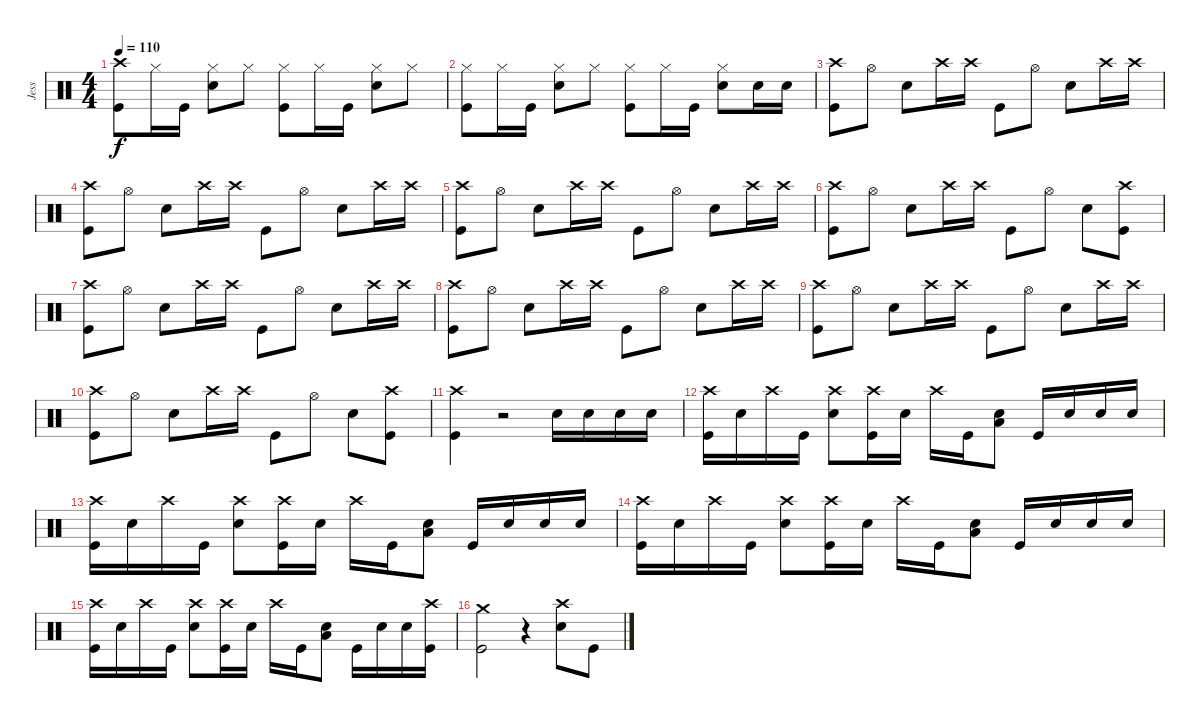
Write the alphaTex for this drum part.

\track ("Jess" "Jess") {instrument percussion}
\staff {score}
\articulation defaults
\ts (4 4)
\tempo 110
\clef neutral
\ks c
("Crash high (hit)" "Kick (hit)").8{dy f} "Hi-Hat (closed)".16 "Kick (hit)".16 ("Hi-Hat (closed)" "Electric Snare (hit)").8 "Hi-Hat (closed)".8 ("Hi-Hat (closed)" "Kick (hit)").8 "Hi-Hat (closed)".16 "Kick (hit)".16 ("Hi-Hat (closed)" "Electric Snare (hit)").8 "Hi-Hat (closed)".8 |
("Hi-Hat (closed)" "Kick (hit)").8 "Hi-Hat (closed)".16 "Kick (hit)".16 ("Hi-Hat (closed)" "Electric Snare (hit)").8 "Hi-Hat (closed)".8 ("Hi-Hat (closed)" "Kick (hit)").8 "Hi-Hat (closed)".16 "Kick (hit)".16 ("Hi-Hat (closed)" "Electric Snare (hit)").8 "Electric Snare (hit)".16 "Electric Snare (hit)".16 |
("Crash high (hit)" "Kick (hit)").8 "Hi-Hat (open)".8 "Electric Snare (hit)".8 "Crash high (hit)".16 "Crash high (hit)".16 "Kick (hit)".8 "Hi-Hat (open)".8 "Electric Snare (hit)".8 "Crash high (hit)".16 "Crash high (hit)".16 |
("Crash high (hit)" "Kick (hit)").8 "Hi-Hat (open)".8 "Electric Snare (hit)".8 "Crash high (hit)".16 "Crash high (hit)".16 "Kick (hit)".8 "Hi-Hat (open)".8 "Electric Snare (hit)".8 "Crash high (hit)".16 "Crash high (hit)".16 |
("Crash high (hit)" "Kick (hit)").8 "Hi-Hat (open)".8 "Electric Snare (hit)".8 "Crash high (hit)".16 "Crash high (hit)".16 "Kick (hit)".8 "Hi-Hat (open)".8 "Electric Snare (hit)".8 "Crash high (hit)".16 "Crash high (hit)".16 |
("Crash high (hit)" "Kick (hit)").8 "Hi-Hat (open)".8 "Electric Snare (hit)".8 "Crash high (hit)".16 "Crash high (hit)".16 "Kick (hit)".8 "Hi-Hat (open)".8 "Electric Snare (hit)".8 ("Crash high (hit)" "Kick (hit)").8 |
("Crash high (hit)" "Kick (hit)").8 "Hi-Hat (open)".8 "Electric Snare (hit)".8 "Crash high (hit)".16 "Crash high (hit)".16 "Kick (hit)".8 "Hi-Hat (open)".8 "Electric Snare (hit)".8 "Crash high (hit)".16 "Crash high (hit)".16 |
("Crash high (hit)" "Kick (hit)").8 "Hi-Hat (open)".8 "Electric Snare (hit)".8 "Crash high (hit)".16 "Crash high (hit)".16 "Kick (hit)".8 "Hi-Hat (open)".8 "Electric Snare (hit)".8 "Crash high (hit)".16 "Crash high (hit)".16 |
("Crash high (hit)" "Kick (hit)").8 "Hi-Hat (open)".8 "Electric Snare (hit)".8 "Crash high (hit)".16 "Crash high (hit)".16 "Kick (hit)".8 "Hi-Hat (open)".8 "Electric Snare (hit)".8 "Crash high (hit)".16 "Crash high (hit)".16 |
("Crash high (hit)" "Kick (hit)").8 "Hi-Hat (open)".8 "Electric Snare (hit)".8 "Crash high (hit)".16 "Crash high (hit)".16 "Kick (hit)".8 "Hi-Hat (open)".8 "Electric Snare (hit)".8 ("Crash high (hit)" "Kick (hit)").8 |
("Crash high (hit)" "Kick (hit)").4 r.2 "Electric Snare (hit)".16 "Electric Snare (hit)".16 "Electric Snare (hit)".16 "Electric Snare (hit)".16 |
("Crash high (hit)" "Kick (hit)").16 "Electric Snare (hit)".16 "Crash high (hit)".16 "Kick (hit)".16 ("Crash high (hit)" "Electric Snare (hit)").8 ("Crash high (hit)" "Kick (hit)").16 "Electric Snare (hit)".16 "Crash high (hit)".16 "Kick (hit)".16 ("Electric Snare (hit)" "Low Floor Tom (hit)").8 "Kick (hit)".16 "Electric Snare (hit)".16 "Electric Snare (hit)".16 "Electric Snare (hit)".16 |
("Crash high (hit)" "Kick (hit)").16 "Electric Snare (hit)".16 "Crash high (hit)".16 "Kick (hit)".16 ("Crash high (hit)" "Electric Snare (hit)").8 ("Crash high (hit)" "Kick (hit)").16 "Electric Snare (hit)".16 "Crash high (hit)".16 "Kick (hit)".16 ("Electric Snare (hit)" "Low Floor Tom (hit)").8 "Kick (hit)".16 "Electric Snare (hit)".16 "Electric Snare (hit)".16 "Electric Snare (hit)".16 |
("Crash high (hit)" "Kick (hit)").16 "Electric Snare (hit)".16 "Crash high (hit)".16 "Kick (hit)".16 ("Crash high (hit)" "Electric Snare (hit)").8 ("Crash high (hit)" "Kick (hit)").16 "Electric Snare (hit)".16 "Crash high (hit)".16 "Kick (hit)".16 ("Electric Snare (hit)" "Low Floor Tom (hit)").8 "Kick (hit)".16 "Electric Snare (hit)".16 "Electric Snare (hit)".16 "Electric Snare (hit)".16 |
("Crash high (hit)" "Kick (hit)").16 "Electric Snare (hit)".16 "Crash high (hit)".16 "Kick (hit)".16 ("Crash high (hit)" "Electric Snare (hit)").8 ("Crash high (hit)" "Kick (hit)").16 "Electric Snare (hit)".16 "Crash high (hit)".16 "Kick (hit)".16 ("Electric Snare (hit)" "Low Floor Tom (hit)").8 "Kick (hit)".16 "Electric Snare (hit)".16 "Electric Snare (hit)".16 ("Crash high (hit)" "Kick (hit)").16 |
("Crash medium (hit)" "Kick (hit)").2 r.4 ("Crash high (hit)" "Electric Snare (hit)").8 "Kick (hit)".8
